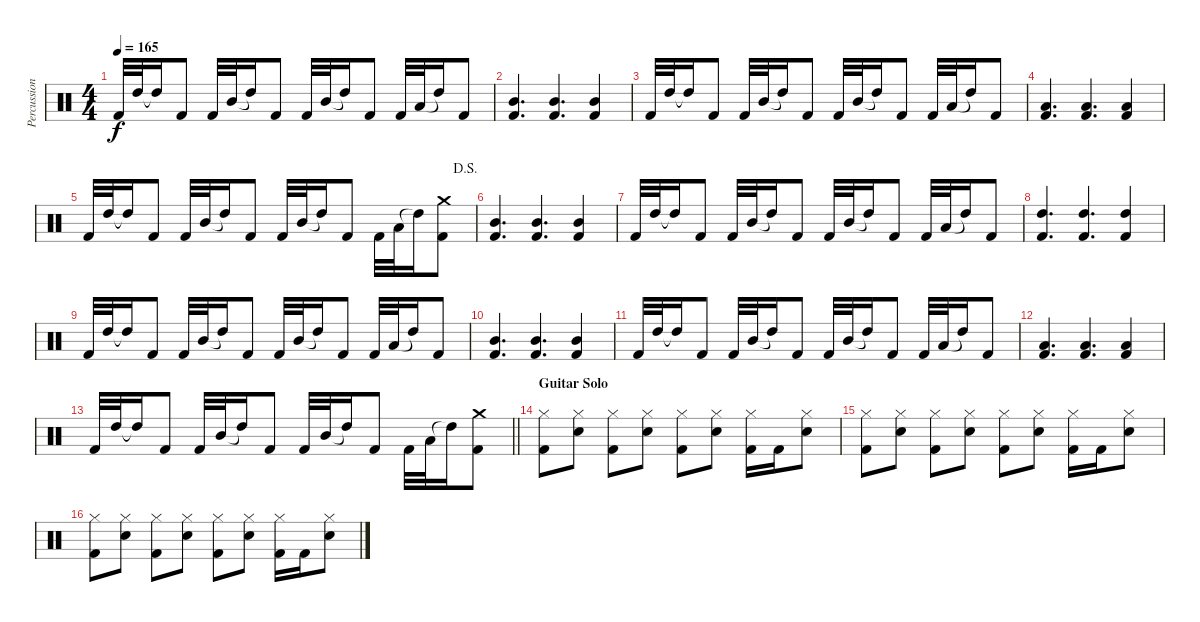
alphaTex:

\track ("Percussion" "Percussion") {instrument percussion}
\staff {score}
\articulation defaults
\ts (4 4)
\tempo 165
\clef neutral
\ks c "Kick (hit) 2".32{dy f} "High Tom (hit)".32 "High Tom (hit)"{t}.16 "Kick (hit) 2".8 "Kick (hit) 2".32 "Mid Tom (hit)".32 "High Tom (hit)"{t}.16 "Kick (hit) 2".8 "Kick (hit) 2".32 "Mid Tom (hit)".32 "High Tom (hit)"{t}.16 "Kick (hit) 2".8 "Kick (hit) 2".32 "Low Tom (hit)".32 "High Tom (hit)"{t}.16 "Kick (hit) 2".8
|
("Mid Tom (hit)" "Kick (hit) 2").4{d} ("Mid Tom (hit)" "Kick (hit) 2").4{d} ("Mid Tom (hit)" "Kick (hit) 2").4 |
"Kick (hit) 2".32 "High Tom (hit)".32 "High Tom (hit)"{t}.16 "Kick (hit) 2".8 "Kick (hit) 2".32 "Mid Tom (hit)".32 "High Tom (hit)"{t}.16 "Kick (hit) 2".8 "Kick (hit) 2".32 "Mid Tom (hit)".32 "High Tom (hit)"{t}.16 "Kick (hit) 2".8 "Kick (hit) 2".32 "Low Tom (hit)".32 "High Tom (hit)"{t}.16 "Kick (hit) 2".8 |
("Low Tom (hit)" "Kick (hit) 2").4{d} ("Low Tom (hit)" "Kick (hit) 2").4{d} ("Low Tom (hit)" "Kick (hit) 2").4 |
\jump dalsegno "Kick (hit) 2".32 "High Tom (hit)".32 "High Tom (hit)"{t}.16 "Kick (hit) 2".8 "Kick (hit) 2".32 "Mid Tom (hit)".32 "High Tom (hit)"{t}.16 "Kick (hit) 2".8 "Kick (hit) 2".32 "Mid Tom (hit)".32 "High Tom (hit)"{t}.16 "Kick (hit) 2".8 "Kick (hit) 2".32 "Low Tom (hit)".32 "High Tom (hit)"{t}.16
("Crash medium (hit)" "Kick (hit) 2").8 |
("Mid Tom (hit)" "Kick (hit) 2").4{d} ("Mid Tom (hit)" "Kick (hit) 2").4{d} ("Mid Tom (hit)" "Kick (hit) 2").4 |
"Kick (hit) 2".32 "High Tom (hit)".32 "High Tom (hit)"{t}.16 "Kick (hit) 2".8 "Kick (hit) 2".32 "Mid Tom (hit)".32 "High Tom (hit)"{t}.16 "Kick (hit) 2".8 "Kick (hit) 2".32 "Mid Tom (hit)".32 "High Tom (hit)"{t}.16 "Kick (hit) 2".8 "Kick (hit) 2".32 "Low Tom (hit)".32 "High Tom (hit)"{t}.16 "Kick (hit) 2".8 |
("High Tom (hit)" "Kick (hit) 2").4{d} ("High Tom (hit)" "Kick (hit) 2").4{d} ("High Tom (hit)" "Kick (hit) 2").4 |
"Kick (hit) 2".32 "High Tom (hit)".32 "High Tom (hit)"{t}.16 "Kick (hit) 2".8 "Kick (hit) 2".32 "Mid Tom (hit)".32 "High Tom (hit)"{t}.16 "Kick (hit) 2".8 "Kick (hit) 2".32 "Mid Tom (hit)".32 "High Tom (hit)"{t}.16 "Kick (hit) 2".8 "Kick (hit) 2".32 "Low Tom (hit)".32 "High Tom (hit)"{t}.16 "Kick (hit) 2".8 |
("Mid Tom (hit)" "Kick (hit) 2").4{d} ("Mid Tom (hit)" "Kick (hit) 2").4{d} ("Mid Tom (hit)" "Kick (hit) 2").4 |
"Kick (hit) 2".32 "High Tom (hit)".32 "High Tom (hit)"{t}.16 "Kick (hit) 2".8 "Kick (hit) 2".32 "Mid Tom (hit)".32 "High Tom (hit)"{t}.16 "Kick (hit) 2".8 "Kick (hit) 2".32 "Mid Tom (hit)".32 "High Tom (hit)"{t}.16 "Kick (hit) 2".8 "Kick (hit) 2".32 "Low Tom (hit)".32 "High Tom (hit)"{t}.16 "Kick (hit) 2".8 |
("Low Tom (hit)" "Kick (hit) 2").4{d} ("Low Tom (hit)" "Kick (hit) 2").4{d} ("Low Tom (hit)" "Kick (hit) 2").4 |
\barLineRight lightlight "Kick (hit) 2".32 "High Tom (hit)".32 "High Tom (hit)"{t}.16 "Kick (hit) 2".8 "Kick (hit) 2".32 "Mid Tom (hit)".32 "High Tom (hit)"{t}.16 "Kick (hit) 2".8 "Kick (hit) 2".32 "Mid Tom (hit)".32 "High Tom (hit)"{t}.16 "Kick (hit) 2".8 "Kick (hit) 2".32 "Low Tom (hit)".32 "High Tom (hit)"{t}.16
("Crash medium (hit)" "Kick (hit) 2").8 |
\section ("" "Guitar Solo")
("Hi-Hat (closed)" "Kick (hit) 2").8 ("Hi-Hat (closed)" "Electric Snare (hit)").8 ("Hi-Hat (closed)" "Kick (hit) 2").8 ("Hi-Hat (closed)" "Electric Snare (hit)").8 ("Hi-Hat (closed)" "Kick (hit) 2").8 ("Hi-Hat (closed)" "Electric Snare (hit)").8 ("Hi-Hat (closed)" "Kick (hit) 2").16 "Kick (hit) 2".16 ("Hi-Hat (closed)" "Electric Snare (hit)").8 |
("Hi-Hat (closed)" "Kick (hit) 2").8 ("Hi-Hat (closed)" "Electric Snare (hit)").8 ("Hi-Hat (closed)" "Kick (hit) 2").8 ("Hi-Hat (closed)" "Electric Snare (hit)").8 ("Hi-Hat (closed)" "Kick (hit) 2").8 ("Hi-Hat (closed)" "Electric Snare (hit)").8 ("Hi-Hat (closed)" "Kick (hit) 2").16 "Kick (hit) 2".16 ("Hi-Hat (closed)" "Electric Snare (hit)").8 |
("Hi-Hat (closed)" "Kick (hit) 2").8 ("Hi-Hat (closed)" "Electric Snare (hit)").8 ("Hi-Hat (closed)" "Kick (hit) 2").8 ("Hi-Hat (closed)" "Electric Snare (hit)").8 ("Hi-Hat (closed)" "Kick (hit) 2").8 ("Hi-Hat (closed)" "Electric Snare (hit)").8 ("Hi-Hat (closed)" "Kick (hit) 2").16 "Kick (hit) 2".16 ("Hi-Hat (closed)" "Electric Snare (hit)").8
